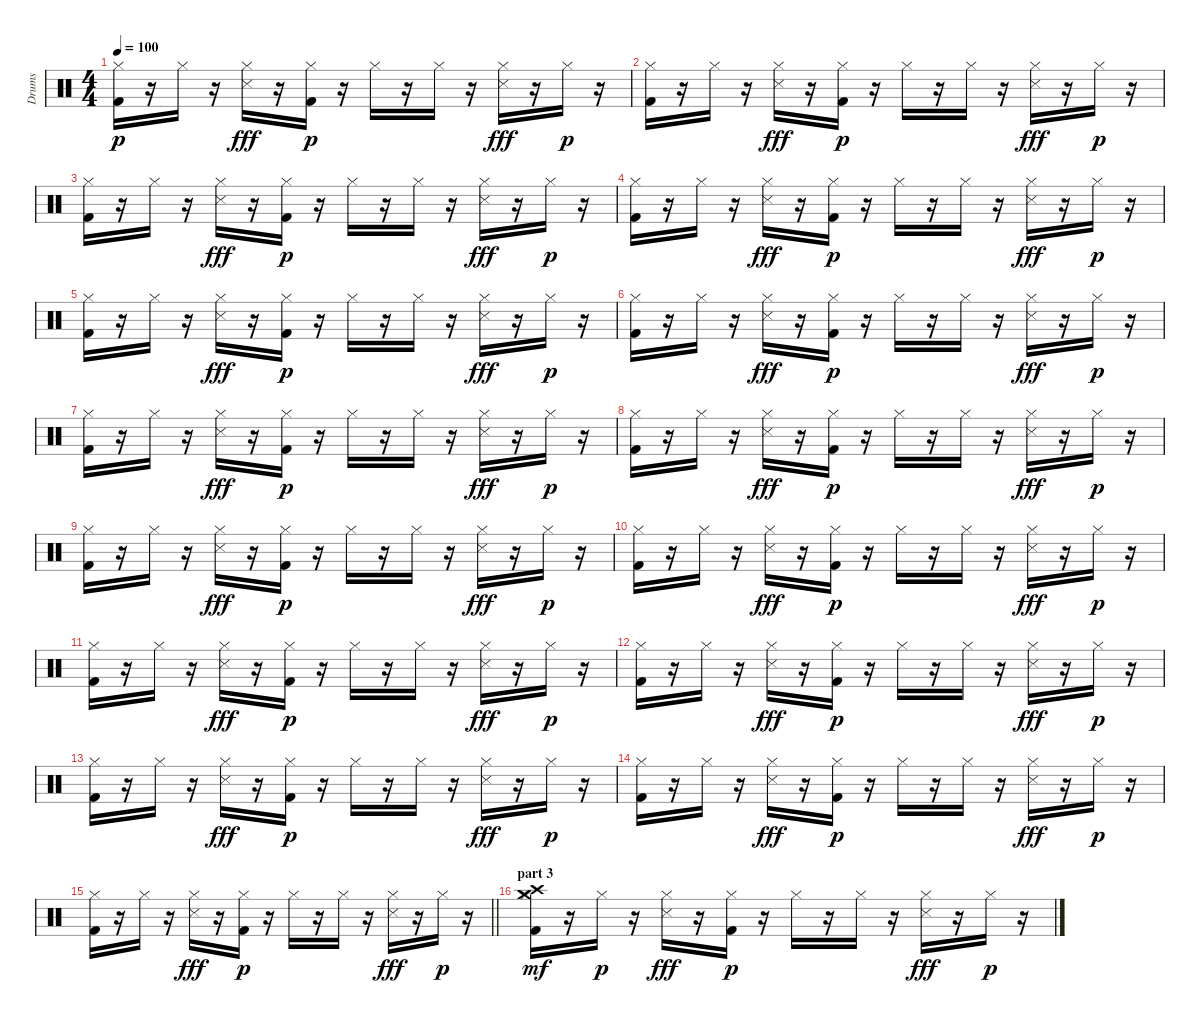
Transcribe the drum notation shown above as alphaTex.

\track ("Drums" "Drums") {instrument percussion}
\staff {score}
\articulation defaults
\ts (4 4)
\tempo 100
\clef neutral
\ks c
("Hi-Hat (closed)" "Kick (hit) 2").16{dy p} r.16 "Hi-Hat (closed)".16 r.16 ("Hi-Hat (closed)" "Snare (side stick) 3").16{dy fff} r.16 ("Hi-Hat (closed)" "Kick (hit) 2").16{dy p} r.16 "Hi-Hat (closed)".16 r.16 "Hi-Hat (closed)".16 r.16 ("Hi-Hat (closed)" "Snare (side stick) 3").16{dy fff} r.16 "Hi-Hat (closed)".16{dy p} r.16 |
("Hi-Hat (closed)" "Kick (hit) 2").16 r.16 "Hi-Hat (closed)".16 r.16 ("Hi-Hat (closed)" "Snare (side stick) 3").16{dy fff} r.16 ("Hi-Hat (closed)" "Kick (hit) 2").16{dy p} r.16 "Hi-Hat (closed)".16 r.16 "Hi-Hat (closed)".16 r.16 ("Hi-Hat (closed)" "Snare (side stick) 3").16{dy fff} r.16 "Hi-Hat (closed)".16{dy p} r.16 |
("Hi-Hat (closed)" "Kick (hit) 2").16 r.16 "Hi-Hat (closed)".16 r.16 ("Hi-Hat (closed)" "Snare (side stick) 3").16{dy fff} r.16 ("Hi-Hat (closed)" "Kick (hit) 2").16{dy p} r.16 "Hi-Hat (closed)".16 r.16 "Hi-Hat (closed)".16 r.16 ("Hi-Hat (closed)" "Snare (side stick) 3").16{dy fff} r.16 "Hi-Hat (closed)".16{dy p} r.16 |
("Hi-Hat (closed)" "Kick (hit) 2").16 r.16 "Hi-Hat (closed)".16 r.16 ("Hi-Hat (closed)" "Snare (side stick) 3").16{dy fff} r.16 ("Hi-Hat (closed)" "Kick (hit) 2").16{dy p} r.16 "Hi-Hat (closed)".16 r.16 "Hi-Hat (closed)".16 r.16 ("Hi-Hat (closed)" "Snare (side stick) 3").16{dy fff} r.16 "Hi-Hat (closed)".16{dy p} r.16 |
("Hi-Hat (closed)" "Kick (hit) 2").16 r.16 "Hi-Hat (closed)".16 r.16 ("Hi-Hat (closed)" "Snare (side stick) 3").16{dy fff} r.16 ("Hi-Hat (closed)" "Kick (hit) 2").16{dy p} r.16 "Hi-Hat (closed)".16 r.16 "Hi-Hat (closed)".16 r.16 ("Hi-Hat (closed)" "Snare (side stick) 3").16{dy fff} r.16 "Hi-Hat (closed)".16{dy p} r.16 |
("Hi-Hat (closed)" "Kick (hit) 2").16 r.16 "Hi-Hat (closed)".16 r.16 ("Hi-Hat (closed)" "Snare (side stick) 3").16{dy fff} r.16 ("Hi-Hat (closed)" "Kick (hit) 2").16{dy p} r.16 "Hi-Hat (closed)".16 r.16 "Hi-Hat (closed)".16 r.16 ("Hi-Hat (closed)" "Snare (side stick) 3").16{dy fff} r.16 "Hi-Hat (closed)".16{dy p} r.16 |
("Hi-Hat (closed)" "Kick (hit) 2").16 r.16 "Hi-Hat (closed)".16 r.16 ("Hi-Hat (closed)" "Snare (side stick) 3").16{dy fff} r.16 ("Hi-Hat (closed)" "Kick (hit) 2").16{dy p} r.16 "Hi-Hat (closed)".16 r.16 "Hi-Hat (closed)".16 r.16 ("Hi-Hat (closed)" "Snare (side stick) 3").16{dy fff} r.16 "Hi-Hat (closed)".16{dy p} r.16 |
("Hi-Hat (closed)" "Kick (hit) 2").16 r.16 "Hi-Hat (closed)".16 r.16 ("Hi-Hat (closed)" "Snare (side stick) 3").16{dy fff} r.16 ("Hi-Hat (closed)" "Kick (hit) 2").16{dy p} r.16 "Hi-Hat (closed)".16 r.16 "Hi-Hat (closed)".16 r.16 ("Hi-Hat (closed)" "Snare (side stick) 3").16{dy fff} r.16 "Hi-Hat (closed)".16{dy p} r.16 |
("Hi-Hat (closed)" "Kick (hit) 2").16 r.16 "Hi-Hat (closed)".16 r.16 ("Hi-Hat (closed)" "Snare (side stick) 3").16{dy fff} r.16 ("Hi-Hat (closed)" "Kick (hit) 2").16{dy p} r.16 "Hi-Hat (closed)".16 r.16 "Hi-Hat (closed)".16 r.16 ("Hi-Hat (closed)" "Snare (side stick) 3").16{dy fff} r.16 "Hi-Hat (closed)".16{dy p} r.16 |
("Hi-Hat (closed)" "Kick (hit) 2").16 r.16 "Hi-Hat (closed)".16 r.16 ("Hi-Hat (closed)" "Snare (side stick) 3").16{dy fff} r.16 ("Hi-Hat (closed)" "Kick (hit) 2").16{dy p} r.16 "Hi-Hat (closed)".16 r.16 "Hi-Hat (closed)".16 r.16 ("Hi-Hat (closed)" "Snare (side stick) 3").16{dy fff} r.16 "Hi-Hat (closed)".16{dy p} r.16 |
("Hi-Hat (closed)" "Kick (hit) 2").16 r.16 "Hi-Hat (closed)".16 r.16 ("Hi-Hat (closed)" "Snare (side stick) 3").16{dy fff} r.16 ("Hi-Hat (closed)" "Kick (hit) 2").16{dy p} r.16 "Hi-Hat (closed)".16 r.16 "Hi-Hat (closed)".16 r.16 ("Hi-Hat (closed)" "Snare (side stick) 3").16{dy fff} r.16 "Hi-Hat (closed)".16{dy p} r.16 |
("Hi-Hat (closed)" "Kick (hit) 2").16 r.16 "Hi-Hat (closed)".16 r.16 ("Hi-Hat (closed)" "Snare (side stick) 3").16{dy fff} r.16 ("Hi-Hat (closed)" "Kick (hit) 2").16{dy p} r.16 "Hi-Hat (closed)".16 r.16 "Hi-Hat (closed)".16 r.16 ("Hi-Hat (closed)" "Snare (side stick) 3").16{dy fff} r.16 "Hi-Hat (closed)".16{dy p} r.16 |
("Hi-Hat (closed)" "Kick (hit) 2").16 r.16 "Hi-Hat (closed)".16 r.16 ("Hi-Hat (closed)" "Snare (side stick) 3").16{dy fff} r.16 ("Hi-Hat (closed)" "Kick (hit) 2").16{dy p} r.16 "Hi-Hat (closed)".16 r.16 "Hi-Hat (closed)".16 r.16 ("Hi-Hat (closed)" "Snare (side stick) 3").16{dy fff} r.16 "Hi-Hat (closed)".16{dy p} r.16 |
("Hi-Hat (closed)" "Kick (hit) 2").16 r.16 "Hi-Hat (closed)".16 r.16 ("Hi-Hat (closed)" "Snare (side stick) 3").16{dy fff} r.16 ("Hi-Hat (closed)" "Kick (hit) 2").16{dy p} r.16 "Hi-Hat (closed)".16 r.16 "Hi-Hat (closed)".16 r.16 ("Hi-Hat (closed)" "Snare (side stick) 3").16{dy fff} r.16 "Hi-Hat (closed)".16{dy p} r.16 |
\barLineRight lightlight
("Hi-Hat (closed)" "Kick (hit) 2").16 r.16 "Hi-Hat (closed)".16 r.16 ("Hi-Hat (closed)" "Snare (side stick) 3").16{dy fff} r.16 ("Hi-Hat (closed)" "Kick (hit) 2").16{dy p} r.16 "Hi-Hat (closed)".16 r.16 "Hi-Hat (closed)".16 r.16 ("Hi-Hat (closed)" "Snare (side stick) 3").16{dy fff} r.16 "Hi-Hat (closed)".16{dy p} r.16 |
\section ("" "part 3")
("Hi-Hat (closed)" "Crash medium (hit)" "Crash high (hit)" "Kick (hit) 2").16{dy mf} r.16 "Hi-Hat (closed)".16{dy p} r.16 ("Hi-Hat (closed)" "Snare (side stick) 3").16{dy fff} r.16 ("Hi-Hat (closed)" "Kick (hit) 2").16{dy p} r.16 "Hi-Hat (closed)".16 r.16 "Hi-Hat (closed)".16 r.16 ("Hi-Hat (closed)" "Snare (side stick) 3").16{dy fff} r.16 "Hi-Hat (closed)".16{dy p} r.16
